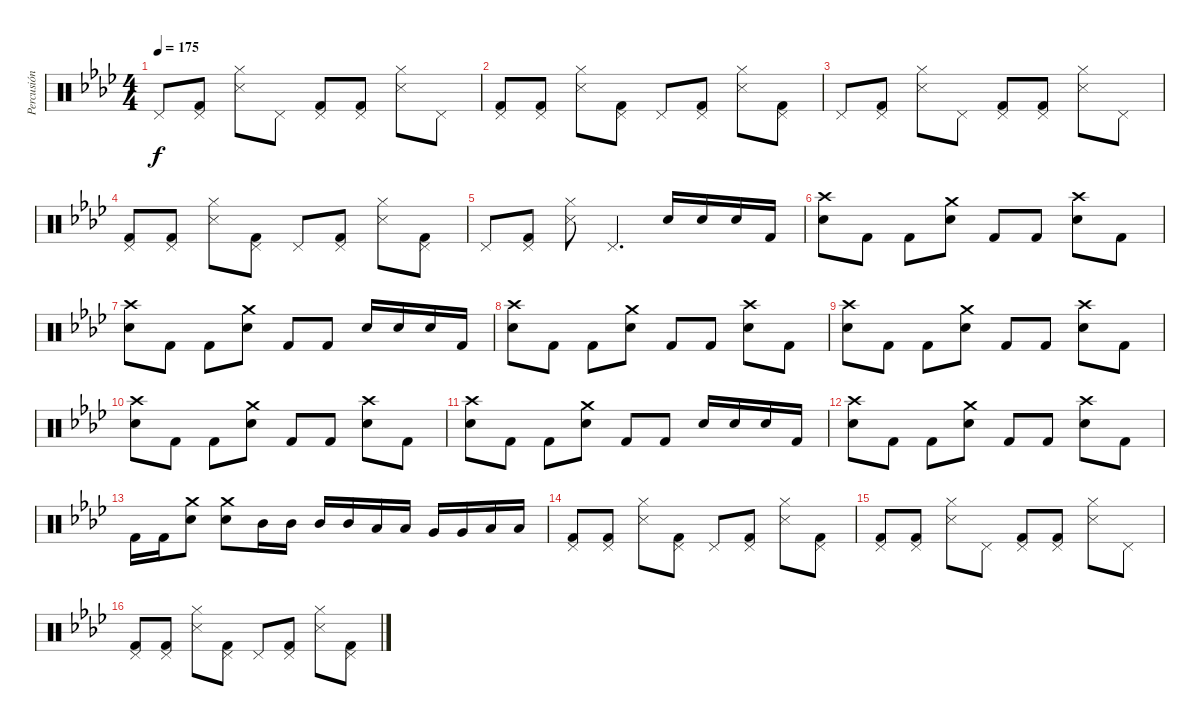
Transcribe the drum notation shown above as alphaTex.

\track ("Percusión" "Percusión") {instrument percussion}
\staff {score}
\articulation defaults
\ts (4 4)
\tempo 175
\clef neutral
\ks fminor "Pedal Hi-Hat (hit)".8{dy f}
("Kick (hit) 2" "Pedal Hi-Hat (hit)").8 ("Snare (side stick) 3" "Hi-Hat (closed)").8 "Pedal Hi-Hat (hit)".8 ("Kick (hit) 2" "Pedal Hi-Hat (hit)").8 ("Kick (hit) 2" "Pedal Hi-Hat (hit)").8 ("Snare (side stick) 3" "Hi-Hat (closed)").8 "Pedal Hi-Hat (hit)".8 |
("Kick (hit) 2" "Pedal Hi-Hat (hit)").8 ("Kick (hit) 2" "Pedal Hi-Hat (hit)").8 ("Snare (side stick) 3" "Hi-Hat (closed)").8 ("Kick (hit) 2" "Pedal Hi-Hat (hit)").8 "Pedal Hi-Hat (hit)".8 ("Kick (hit) 2" "Pedal Hi-Hat (hit)").8 ("Snare (side stick) 3" "Hi-Hat (closed)").8 ("Kick (hit) 2" "Pedal Hi-Hat (hit)").8 |
"Pedal Hi-Hat (hit)".8 ("Kick (hit) 2" "Pedal Hi-Hat (hit)").8 ("Snare (side stick) 3" "Hi-Hat (closed)").8 "Pedal Hi-Hat (hit)".8 ("Kick (hit) 2" "Pedal Hi-Hat (hit)").8 ("Kick (hit) 2" "Pedal Hi-Hat (hit)").8 ("Snare (side stick) 3" "Hi-Hat (closed)").8 "Pedal Hi-Hat (hit)".8 |
("Kick (hit) 2" "Pedal Hi-Hat (hit)").8 ("Kick (hit) 2" "Pedal Hi-Hat (hit)").8 ("Snare (side stick) 3" "Hi-Hat (closed)").8 ("Kick (hit) 2" "Pedal Hi-Hat (hit)").8 "Pedal Hi-Hat (hit)".8 ("Kick (hit) 2" "Pedal Hi-Hat (hit)").8 ("Snare (side stick) 3" "Hi-Hat (closed)").8 ("Kick (hit) 2" "Pedal Hi-Hat (hit)").8 |
"Pedal Hi-Hat (hit)".8 ("Kick (hit) 2" "Pedal Hi-Hat (hit)").8 ("Snare (side stick) 3" "Hi-Hat (closed)").8 "Pedal Hi-Hat (hit)".4{d} "Snare (hit) 2".16 "Snare (hit) 2".16 "Snare (hit) 2".16 "Kick (hit) 2".16 |
("Snare (hit) 2" "Crash high (hit)").8{volume 15} "Kick (hit) 2".8 "Kick (hit) 2".8 ("Snare (hit) 2" "Crash medium (hit)").8 "Kick (hit) 2".8 "Kick (hit) 2".8 ("Snare (hit) 2" "Crash high (hit)").8 "Kick (hit) 2".8 |
("Snare (hit) 2" "Crash high (hit)").8 "Kick (hit) 2".8 "Kick (hit) 2".8 ("Snare (hit) 2" "Crash medium (hit)").8 "Kick (hit) 2".8 "Kick (hit) 2".8 "Snare (hit) 2".16 "Snare (hit) 2".16 "Snare (hit) 2".16 "Kick (hit) 2".16 |
("Snare (hit) 2" "Crash high (hit)").8 "Kick (hit) 2".8 "Kick (hit) 2".8 ("Snare (hit) 2" "Crash medium (hit)").8 "Kick (hit) 2".8 "Kick (hit) 2".8 ("Snare (hit) 2" "Crash high (hit)").8 "Kick (hit) 2".8 |
("Snare (hit) 2" "Crash high (hit)").8 "Kick (hit) 2".8 "Kick (hit) 2".8 ("Snare (hit) 2" "Crash medium (hit)").8 "Kick (hit) 2".8 "Kick (hit) 2".8 ("Snare (hit) 2" "Crash high (hit)").8 "Kick (hit) 2".8 |
("Snare (hit) 2" "Crash high (hit)").8 "Kick (hit) 2".8 "Kick (hit) 2".8 ("Snare (hit) 2" "Crash medium (hit)").8 "Kick (hit) 2".8 "Kick (hit) 2".8 ("Snare (hit) 2" "Crash high (hit)").8 "Kick (hit) 2".8 |
("Snare (hit) 2" "Crash high (hit)").8 "Kick (hit) 2".8 "Kick (hit) 2".8 ("Snare (hit) 2" "Crash medium (hit)").8 "Kick (hit) 2".8 "Kick (hit) 2".8 "Snare (hit) 2".16 "Snare (hit) 2".16 "Snare (hit) 2".16 "Kick (hit) 2".16 |
("Snare (hit) 2" "Crash high (hit)").8 "Kick (hit) 2".8 "Kick (hit) 2".8 ("Snare (hit) 2" "Crash medium (hit)").8 "Kick (hit) 2".8 "Kick (hit) 2".8 ("Snare (hit) 2" "Crash high (hit)").8 "Kick (hit) 2".8 |
"Kick (hit) 2".16 "Kick (hit) 2".16 ("Snare (hit) 2" "Crash medium (hit)").8 ("Snare (hit) 2" "Crash medium (hit)").8 "Mid Tom (hit)".16 "Mid Tom (hit)".16 "Mid Tom (hit)".16 "Mid Tom (hit)".16 "Low Tom (hit)".16 "Low Tom (hit)".16 "Very Low Tom (hit)".16 "Very Low Tom (hit)".16 "Low Floor Tom (hit)".16 "Low Floor Tom (hit)".16 |
("Kick (hit) 2" "Pedal Hi-Hat (hit)").8 ("Kick (hit) 2" "Pedal Hi-Hat (hit)").8 ("Snare (side stick) 3" "Hi-Hat (closed)").8 ("Kick (hit) 2" "Pedal Hi-Hat (hit)").8 "Pedal Hi-Hat (hit)".8 ("Kick (hit) 2" "Pedal Hi-Hat (hit)").8 ("Snare (side stick) 3" "Hi-Hat (closed)").8 ("Kick (hit) 2" "Pedal Hi-Hat (hit)").8 |
("Kick (hit) 2" "Pedal Hi-Hat (hit)").8 ("Kick (hit) 2" "Pedal Hi-Hat (hit)").8 ("Snare (side stick) 3" "Hi-Hat (closed)").8 "Pedal Hi-Hat (hit)".8 ("Kick (hit) 2" "Pedal Hi-Hat (hit)").8 ("Kick (hit) 2" "Pedal Hi-Hat (hit)").8 ("Snare (side stick) 3" "Hi-Hat (closed)").8 "Pedal Hi-Hat (hit)".8 |
("Kick (hit) 2" "Pedal Hi-Hat (hit)").8 ("Kick (hit) 2" "Pedal Hi-Hat (hit)").8 ("Snare (side stick) 3" "Hi-Hat (closed)").8 ("Kick (hit) 2" "Pedal Hi-Hat (hit)").8 "Pedal Hi-Hat (hit)".8 ("Kick (hit) 2" "Pedal Hi-Hat (hit)").8 ("Snare (side stick) 3" "Hi-Hat (closed)").8 ("Kick (hit) 2" "Pedal Hi-Hat (hit)").8
